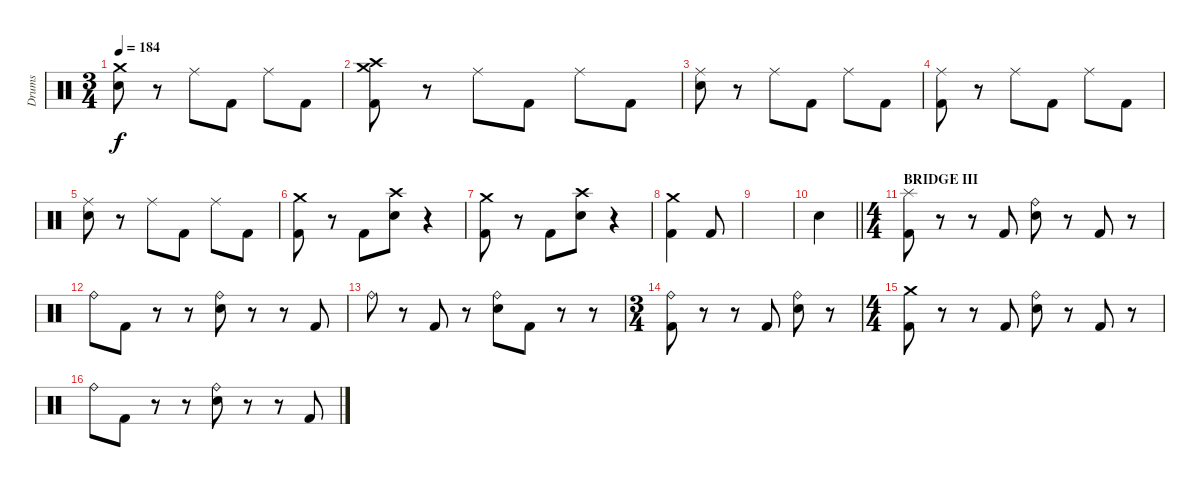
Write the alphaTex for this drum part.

\track ("Drums" "Drums") {instrument percussion}
\staff {score}
\articulation defaults
\ts (3 4)
\tempo 184
\clef neutral
\ks c
("Crash medium (hit)" "Snare (hit) 2").8{dy f} r.8 "Ride (middle)".8 "Kick (hit) 2".8 "Ride (middle)".8 "Kick (hit) 2".8 |
("Crash medium (hit)" "Crash high (hit)" "Kick (hit) 2").8 r.8 "Ride (middle)".8 "Kick (hit) 2".8 "Ride (middle)".8 "Kick (hit) 2".8 |
("Ride (middle)" "Snare (hit) 2").8 r.8 "Ride (middle)".8 "Kick (hit) 2".8 "Ride (middle)".8 "Kick (hit) 2".8 |
("Ride (middle)" "Kick (hit) 2").8 r.8 "Ride (middle)".8 "Kick (hit) 2".8 "Ride (middle)".8 "Kick (hit) 2".8 |
("Ride (middle)" "Snare (hit) 2").8 r.8 "Ride (middle)".8 "Kick (hit) 2".8 "Ride (middle)".8 "Kick (hit) 2".8 |
("Crash medium (hit)" "Kick (hit) 2").8 r.8 "Kick (hit) 2".8 ("Crash high (hit)" "Snare (hit) 2").8 r.4 |
("Crash medium (hit)" "Kick (hit) 2").8 r.8 "Kick (hit) 2".8 ("Crash high (hit)" "Snare (hit) 2").8 r.4 |
("Crash medium (hit)" "Kick (hit) 2").4 "Kick (hit) 2".8 |
|
\barLineRight lightlight "Snare (hit) 2".4
|
\ts (4 4)
\section ("" "BRIDGE III")
("Splash (hit)" "Kick (hit) 2").8 r.8 r.8 "Kick (hit) 2".8 ("Ride (bell)" "Snare (hit) 2").8 r.8 "Kick (hit) 2".8 r.8 |
"Ride (bell)".8 "Kick (hit) 2".8 r.8 r.8 ("Ride (bell)" "Snare (hit) 2").8 r.8 r.8 "Kick (hit) 2".8 |
"Ride (bell)".8 r.8 "Kick (hit) 2".8 r.8 ("Ride (bell)" "Snare (hit) 2").8 "Kick (hit) 2".8 r.8 r.8 |
\ts (3 4)
("Ride (bell)" "Kick (hit) 2").8 r.8 r.8 "Kick (hit) 2".8 ("Ride (bell)" "Snare (hit) 2").8 r.8 |
\ts (4 4)
("Crash medium (hit)" "Kick (hit) 2").8 r.8 r.8 "Kick (hit) 2".8 ("Ride (bell)" "Snare (hit) 2").8 r.8 "Kick (hit) 2".8 r.8 |
"Ride (bell)".8 "Kick (hit) 2".8 r.8 r.8 ("Ride (bell)" "Snare (hit) 2").8 r.8 r.8 "Kick (hit) 2".8
